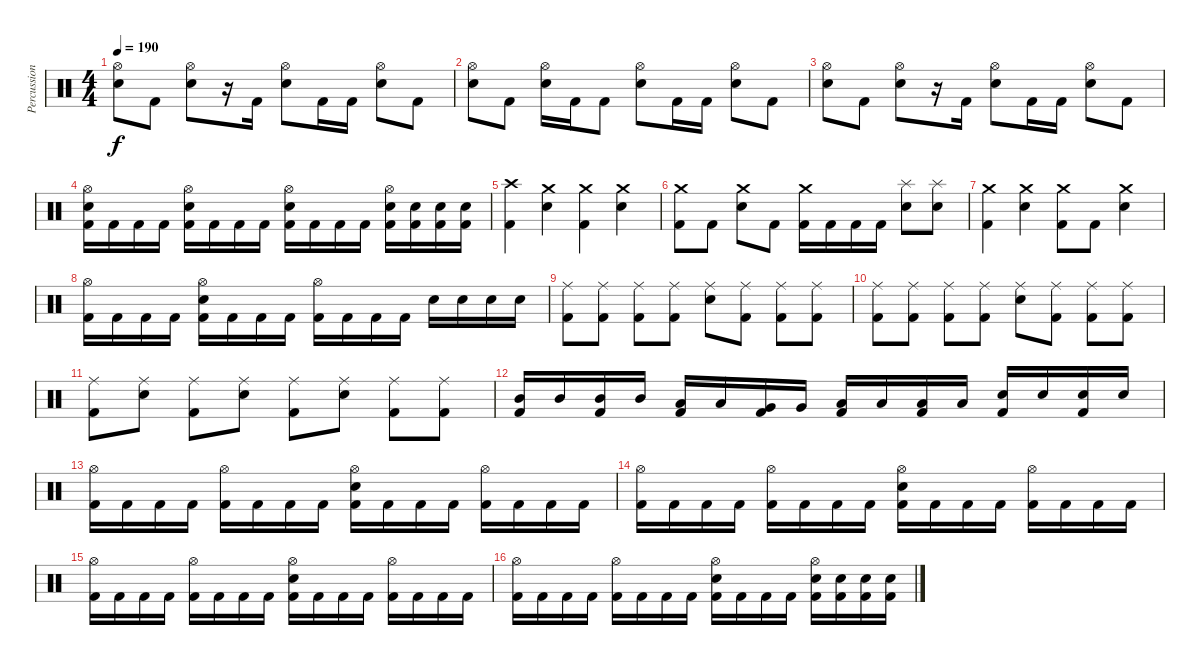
\track ("Percussion" "Percussion") {instrument percussion}
\staff {score}
\articulation defaults
\ts (4 4)
\tempo 190
\clef neutral
\ks c
("Hi-Hat (open)" "Electric Snare (hit)").8{dy f} "Kick (hit) 2".8 ("Hi-Hat (open)" "Electric Snare (hit)").8 r.16 "Kick (hit) 2".16 ("Hi-Hat (open)" "Electric Snare (hit)").8 "Kick (hit) 2".16 "Kick (hit) 2".16 ("Hi-Hat (open)" "Electric Snare (hit)").8 "Kick (hit) 2".8 |
("Hi-Hat (open)" "Electric Snare (hit)").8 "Kick (hit) 2".8 ("Hi-Hat (open)" "Electric Snare (hit)").16 "Kick (hit) 2".16 "Kick (hit) 2".8 ("Hi-Hat (open)" "Electric Snare (hit)").8 "Kick (hit) 2".16 "Kick (hit) 2".16 ("Hi-Hat (open)" "Electric Snare (hit)").8 "Kick (hit) 2".8 |
("Hi-Hat (open)" "Electric Snare (hit)").8 "Kick (hit) 2".8 ("Hi-Hat (open)" "Electric Snare (hit)").8 r.16 "Kick (hit) 2".16 ("Hi-Hat (open)" "Electric Snare (hit)").8 "Kick (hit) 2".16 "Kick (hit) 2".16 ("Hi-Hat (open)" "Electric Snare (hit)").8 "Kick (hit) 2".8 |
("Hi-Hat (open)" "Electric Snare (hit)" "Kick (hit) 2").16 "Kick (hit) 2".16 "Kick (hit) 2".16 "Kick (hit) 2".16 ("Hi-Hat (open)" "Electric Snare (hit)" "Kick (hit) 2").16 "Kick (hit) 2".16 "Kick (hit) 2".16 "Kick (hit) 2".16 ("Hi-Hat (open)" "Electric Snare (hit)" "Kick (hit) 2").16 "Kick (hit) 2".16 "Kick (hit) 2".16 "Kick (hit) 2".16 ("Hi-Hat (open)" "Electric Snare (hit)" "Kick (hit) 2").16 ("Electric Snare (hit)" "Kick (hit) 2").16 ("Electric Snare (hit)" "Kick (hit) 2").16 ("Electric Snare (hit)" "Kick (hit) 2").16 |
("Crash high (hit)" "Kick (hit) 2").4 ("Crash medium (hit)" "Electric Snare (hit)").4 ("Crash medium (hit)" "Kick (hit) 2").4 ("Crash medium (hit)" "Electric Snare (hit)").4 |
("Crash medium (hit)" "Kick (hit) 2").8 "Kick (hit) 2".8 ("Crash medium (hit)" "Electric Snare (hit)").8 "Kick (hit) 2".8 ("Crash medium (hit)" "Kick (hit) 2").16 "Kick (hit) 2".16 "Kick (hit) 2".16 "Kick (hit) 2".16 ("Splash (hit)" "Electric Snare (hit)").8 ("Splash (hit)" "Electric Snare (hit)").8 |
("Crash medium (hit)" "Kick (hit) 2").4 ("Crash medium (hit)" "Electric Snare (hit)").4 ("Crash medium (hit)" "Kick (hit) 2").8 "Kick (hit) 2".8 ("Crash medium (hit)" "Electric Snare (hit)").4 |
("Hi-Hat (open)" "Kick (hit) 2").16 "Kick (hit) 2".16 "Kick (hit) 2".16 "Kick (hit) 2".16 ("Hi-Hat (open)" "Electric Snare (hit)" "Kick (hit) 2").16 "Kick (hit) 2".16 "Kick (hit) 2".16 "Kick (hit) 2".16 ("Hi-Hat (open)" "Kick (hit) 2").16 "Kick (hit) 2".16 "Kick (hit) 2".16 "Kick (hit) 2".16 "Electric Snare (hit)".16 "Electric Snare (hit)".16 "Electric Snare (hit)".16 "Electric Snare (hit)".16 |
("Ride (middle)" "Kick (hit) 2").8 ("Ride (middle)" "Kick (hit) 2").8 ("Ride (middle)" "Kick (hit) 2").8 ("Ride (middle)" "Kick (hit) 2").8 ("Ride (middle)" "Electric Snare (hit)").8 ("Ride (middle)" "Kick (hit) 2").8 ("Ride (middle)" "Kick (hit) 2").8 ("Ride (middle)" "Kick (hit) 2").8 |
("Ride (middle)" "Kick (hit) 2").8 ("Ride (middle)" "Kick (hit) 2").8 ("Ride (middle)" "Kick (hit) 2").8 ("Ride (middle)" "Kick (hit) 2").8 ("Ride (middle)" "Electric Snare (hit)").8 ("Ride (middle)" "Kick (hit) 2").8 ("Ride (middle)" "Kick (hit) 2").8 ("Ride (middle)" "Kick (hit) 2").8 |
("Ride (middle)" "Kick (hit) 2").8 ("Ride (middle)" "Electric Snare (hit)").8 ("Ride (middle)" "Kick (hit) 2").8 ("Ride (middle)" "Electric Snare (hit)").8 ("Ride (middle)" "Kick (hit) 2").8 ("Ride (middle)" "Electric Snare (hit)").8 ("Ride (middle)" "Kick (hit) 2").8 ("Ride (middle)" "Kick (hit) 2").8 |
("Mid Tom (hit)" "Kick (hit) 2").16 "Mid Tom (hit)".16 ("Mid Tom (hit)" "Kick (hit) 2").16 "Mid Tom (hit)".16 ("Low Tom (hit)" "Kick (hit) 2").16 "Low Tom (hit)".16 ("Very Low Tom (hit)" "Kick (hit) 2").16 "Very Low Tom (hit)".16 ("Low Floor Tom (hit)" "Kick (hit) 2").16 "Low Floor Tom (hit)".16 ("Low Floor Tom (hit)" "Kick (hit) 2").16 "Low Floor Tom (hit)".16 ("Electric Snare (hit)" "Kick (hit) 2").16 "Electric Snare (hit)".16 ("Electric Snare (hit)" "Kick (hit) 2").16 "Electric Snare (hit)".16 |
("Hi-Hat (open)" "Kick (hit) 2").16 "Kick (hit) 2".16 "Kick (hit) 2".16 "Kick (hit) 2".16 ("Hi-Hat (open)" "Kick (hit) 2").16 "Kick (hit) 2".16 "Kick (hit) 2".16 "Kick (hit) 2".16 ("Hi-Hat (open)" "Electric Snare (hit)" "Kick (hit) 2").16 "Kick (hit) 2".16 "Kick (hit) 2".16 "Kick (hit) 2".16 ("Hi-Hat (open)" "Kick (hit) 2").16 "Kick (hit) 2".16 "Kick (hit) 2".16 "Kick (hit) 2".16 |
("Hi-Hat (open)" "Kick (hit) 2").16 "Kick (hit) 2".16 "Kick (hit) 2".16 "Kick (hit) 2".16 ("Hi-Hat (open)" "Kick (hit) 2").16 "Kick (hit) 2".16 "Kick (hit) 2".16 "Kick (hit) 2".16 ("Hi-Hat (open)" "Electric Snare (hit)" "Kick (hit) 2").16 "Kick (hit) 2".16 "Kick (hit) 2".16 "Kick (hit) 2".16 ("Hi-Hat (open)" "Kick (hit) 2").16 "Kick (hit) 2".16 "Kick (hit) 2".16 "Kick (hit) 2".16 |
("Hi-Hat (open)" "Kick (hit) 2").16 "Kick (hit) 2".16 "Kick (hit) 2".16 "Kick (hit) 2".16 ("Hi-Hat (open)" "Kick (hit) 2").16 "Kick (hit) 2".16 "Kick (hit) 2".16 "Kick (hit) 2".16 ("Hi-Hat (open)" "Electric Snare (hit)" "Kick (hit) 2").16 "Kick (hit) 2".16 "Kick (hit) 2".16 "Kick (hit) 2".16 ("Hi-Hat (open)" "Kick (hit) 2").16 "Kick (hit) 2".16 "Kick (hit) 2".16 "Kick (hit) 2".16 |
("Hi-Hat (open)" "Kick (hit) 2").16 "Kick (hit) 2".16 "Kick (hit) 2".16 "Kick (hit) 2".16 ("Hi-Hat (open)" "Kick (hit) 2").16 "Kick (hit) 2".16 "Kick (hit) 2".16 "Kick (hit) 2".16 ("Hi-Hat (open)" "Electric Snare (hit)" "Kick (hit) 2").16 "Kick (hit) 2".16 "Kick (hit) 2".16 "Kick (hit) 2".16 ("Hi-Hat (open)" "Electric Snare (hit)" "Kick (hit) 2").16 ("Electric Snare (hit)" "Kick (hit) 2").16 ("Electric Snare (hit)" "Kick (hit) 2").16 ("Electric Snare (hit)" "Kick (hit) 2").16
